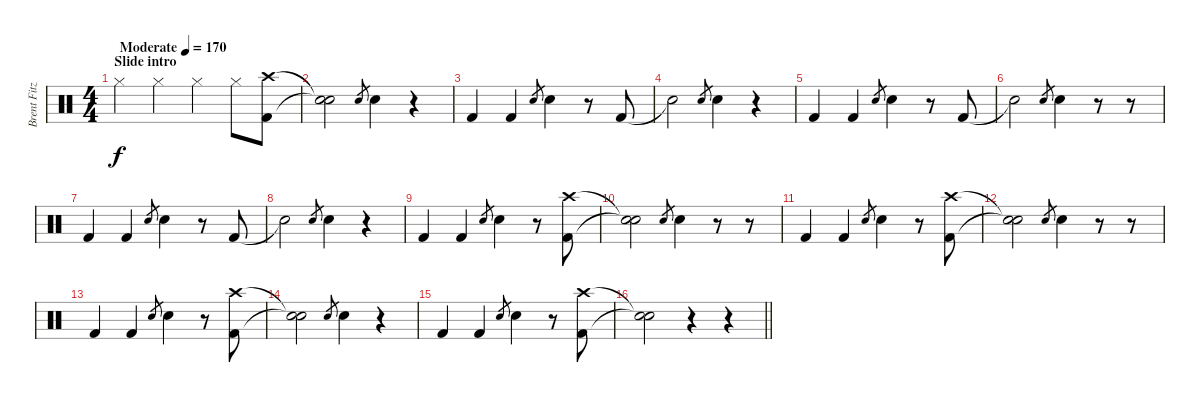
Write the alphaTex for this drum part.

\track ("Brent Fitz" "Brent Fitz") {instrument percussion}
\staff {score}
\articulation defaults
\ts (4 4)
\section ("" "Slide intro")
\tempo (170 "Moderate")
\clef neutral
\ks c "Hi-Hat (closed)".4{dy f} "Hi-Hat (closed)".4 "Hi-Hat (closed)".4 "Hi-Hat (closed)".8
("Crash high (hit)" "Kick (hit) 2").8 |
("Snare (hit)"{t} "Snare (hit)"{t}).2 "Electric Snare (hit)".8{gr} "Electric Snare (hit)".4 r.4 |
"Kick (hit) 2".4 "Kick (hit) 2".4 "Electric Snare (hit)".8{gr} "Electric Snare (hit)".4 r.8 "Kick (hit) 2".8 |
"Snare (hit)"{t}.2 "Electric Snare (hit)".8{gr} "Electric Snare (hit)".4 r.4 |
"Kick (hit) 2".4 "Kick (hit) 2".4 "Electric Snare (hit)".8{gr} "Electric Snare (hit)".4 r.8 "Kick (hit) 2".8 |
"Snare (hit)"{t}.2 "Electric Snare (hit)".8{gr} "Electric Snare (hit)".4 r.8 r.8 |
"Kick (hit) 2".4 "Kick (hit) 2".4 "Electric Snare (hit)".8{gr} "Electric Snare (hit)".4 r.8 "Kick (hit) 2".8 |
"Snare (hit)"{t}.2 "Electric Snare (hit)".8{gr} "Electric Snare (hit)".4 r.4 |
"Kick (hit) 2".4 "Kick (hit) 2".4 "Electric Snare (hit)".8{gr} "Electric Snare (hit)".4 r.8 ("Crash high (hit)" "Kick (hit) 2").8 |
("Snare (hit)"{t} "Snare (hit)"{t}).2 "Electric Snare (hit)".8{gr} "Electric Snare (hit)".4 r.8 r.8 |
"Kick (hit) 2".4 "Kick (hit) 2".4 "Electric Snare (hit)".8{gr} "Electric Snare (hit)".4 r.8 ("Crash high (hit)" "Kick (hit) 2").8 |
("Snare (hit)"{t} "Snare (hit)"{t}).2 "Electric Snare (hit)".8{gr} "Electric Snare (hit)".4 r.8 r.8 |
"Kick (hit) 2".4 "Kick (hit) 2".4 "Electric Snare (hit)".8{gr} "Electric Snare (hit)".4 r.8 ("Crash high (hit)" "Kick (hit) 2").8 |
("Snare (hit)"{t} "Snare (hit)"{t}).2 "Electric Snare (hit)".8{gr} "Electric Snare (hit)".4 r.4 |
"Kick (hit) 2".4 "Kick (hit) 2".4 "Electric Snare (hit)".8{gr} "Electric Snare (hit)".4 r.8 ("Crash high (hit)" "Kick (hit) 2").8 |
\barLineRight lightlight
("Snare (hit)"{t} "Snare (hit)"{t}).2 r.4 r.4
